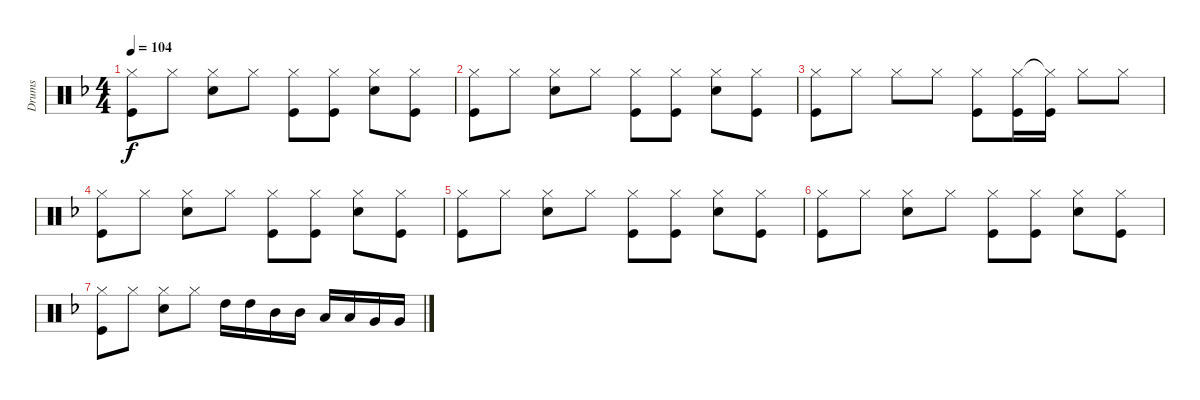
\track ("Drums" "Drums") {instrument percussion}
\staff {score}
\articulation defaults
\ts (4 4)
\tempo 104
\clef neutral
\ks f
("Hi-Hat (closed)" "Kick (hit)").8{dy f} "Hi-Hat (closed)".8 ("Hi-Hat (closed)" "Snare (hit) 2").8 "Hi-Hat (closed)".8 ("Hi-Hat (closed)" "Kick (hit)").8 ("Hi-Hat (closed)" "Kick (hit)").8 ("Hi-Hat (closed)" "Snare (hit) 2").8 ("Hi-Hat (closed)" "Kick (hit)").8 |
("Hi-Hat (closed)" "Kick (hit)").8 "Hi-Hat (closed)".8 ("Hi-Hat (closed)" "Snare (hit) 2").8 "Hi-Hat (closed)".8 ("Hi-Hat (closed)" "Kick (hit)").8 ("Hi-Hat (closed)" "Kick (hit)").8 ("Hi-Hat (closed)" "Snare (hit) 2").8 ("Hi-Hat (closed)" "Kick (hit)").8 |
("Hi-Hat (closed)" "Kick (hit)").8 "Hi-Hat (closed)".8 "Hi-Hat (closed)".8 "Hi-Hat (closed)".8 ("Hi-Hat (closed)" "Kick (hit)").8 ("Hi-Hat (closed)" "Kick (hit)").16 ("Hi-Hat (closed)"{t} "Kick (hit)").16 "Hi-Hat (closed)".8 "Hi-Hat (closed)".8 |
("Hi-Hat (closed)" "Kick (hit)").8 "Hi-Hat (closed)".8 ("Hi-Hat (closed)" "Snare (hit) 2").8 "Hi-Hat (closed)".8 ("Hi-Hat (closed)" "Kick (hit)").8 ("Hi-Hat (closed)" "Kick (hit)").8 ("Hi-Hat (closed)" "Snare (hit) 2").8 ("Hi-Hat (closed)" "Kick (hit)").8 |
("Hi-Hat (closed)" "Kick (hit)").8{volume 0} "Hi-Hat (closed)".8 ("Hi-Hat (closed)" "Snare (hit) 2").8 "Hi-Hat (closed)".8 ("Hi-Hat (closed)" "Kick (hit)").8 ("Hi-Hat (closed)" "Kick (hit)").8 ("Hi-Hat (closed)" "Snare (hit) 2").8 ("Hi-Hat (closed)" "Kick (hit)").8 |
("Hi-Hat (closed)" "Kick (hit)").8 "Hi-Hat (closed)".8 ("Hi-Hat (closed)" "Snare (hit) 2").8 "Hi-Hat (closed)".8 ("Hi-Hat (closed)" "Kick (hit)").8 ("Hi-Hat (closed)" "Kick (hit)").8 ("Hi-Hat (closed)" "Snare (hit) 2").8 ("Hi-Hat (closed)" "Kick (hit)").8 |
("Hi-Hat (closed)" "Kick (hit)").8 "Hi-Hat (closed)".8 ("Hi-Hat (closed)" "Snare (hit) 2").8 "Hi-Hat (closed)".8 "High Tom (hit)".16 "High Tom (hit)".16 "Mid Tom (hit)".16 "Mid Tom (hit)".16 "Low Tom (hit)".16 "Low Tom (hit)".16 "Very Low Tom (hit)".16 "Very Low Tom (hit)".16
